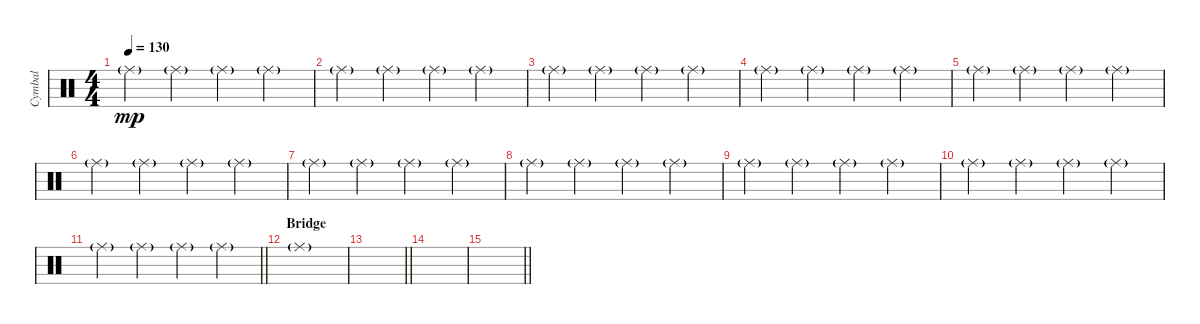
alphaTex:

\track ("Cymbal" "Cymbal") {instrument percussion}
\staff {score}
\articulation defaults
\ts (4 4)
\tempo 130
\clef neutral
\ks c "Ride (middle)"{g}.4{dy mp} "Ride (middle)"{g}.4 "Ride (middle)"{g}.4 "Ride (middle)"{g}.4
|
"Ride (middle)"{g}.4 "Ride (middle)"{g}.4 "Ride (middle)"{g}.4 "Ride (middle)"{g}.4 |
"Ride (middle)"{g}.4 "Ride (middle)"{g}.4 "Ride (middle)"{g}.4 "Ride (middle)"{g}.4 |
"Ride (middle)"{g}.4 "Ride (middle)"{g}.4 "Ride (middle)"{g}.4 "Ride (middle)"{g}.4 |
"Ride (middle)"{g}.4 "Ride (middle)"{g}.4 "Ride (middle)"{g}.4 "Ride (middle)"{g}.4 |
"Ride (middle)"{g}.4 "Ride (middle)"{g}.4 "Ride (middle)"{g}.4 "Ride (middle)"{g}.4 |
"Ride (middle)"{g}.4 "Ride (middle)"{g}.4 "Ride (middle)"{g}.4 "Ride (middle)"{g}.4 |
"Ride (middle)"{g}.4 "Ride (middle)"{g}.4 "Ride (middle)"{g}.4 "Ride (middle)"{g}.4 |
"Ride (middle)"{g}.4 "Ride (middle)"{g}.4 "Ride (middle)"{g}.4 "Ride (middle)"{g}.4 |
"Ride (middle)"{g}.4 "Ride (middle)"{g}.4 "Ride (middle)"{g}.4 "Ride (middle)"{g}.4 |
\barLineRight lightlight "Ride (middle)"{g}.4 "Ride (middle)"{g}.4 "Ride (middle)"{g}.4 "Ride (middle)"{g}.4
|
\section ("" "Bridge")
"Ride (middle)"{g}.1 |
\barLineRight lightlight
|
|
\barLineRight lightlight
